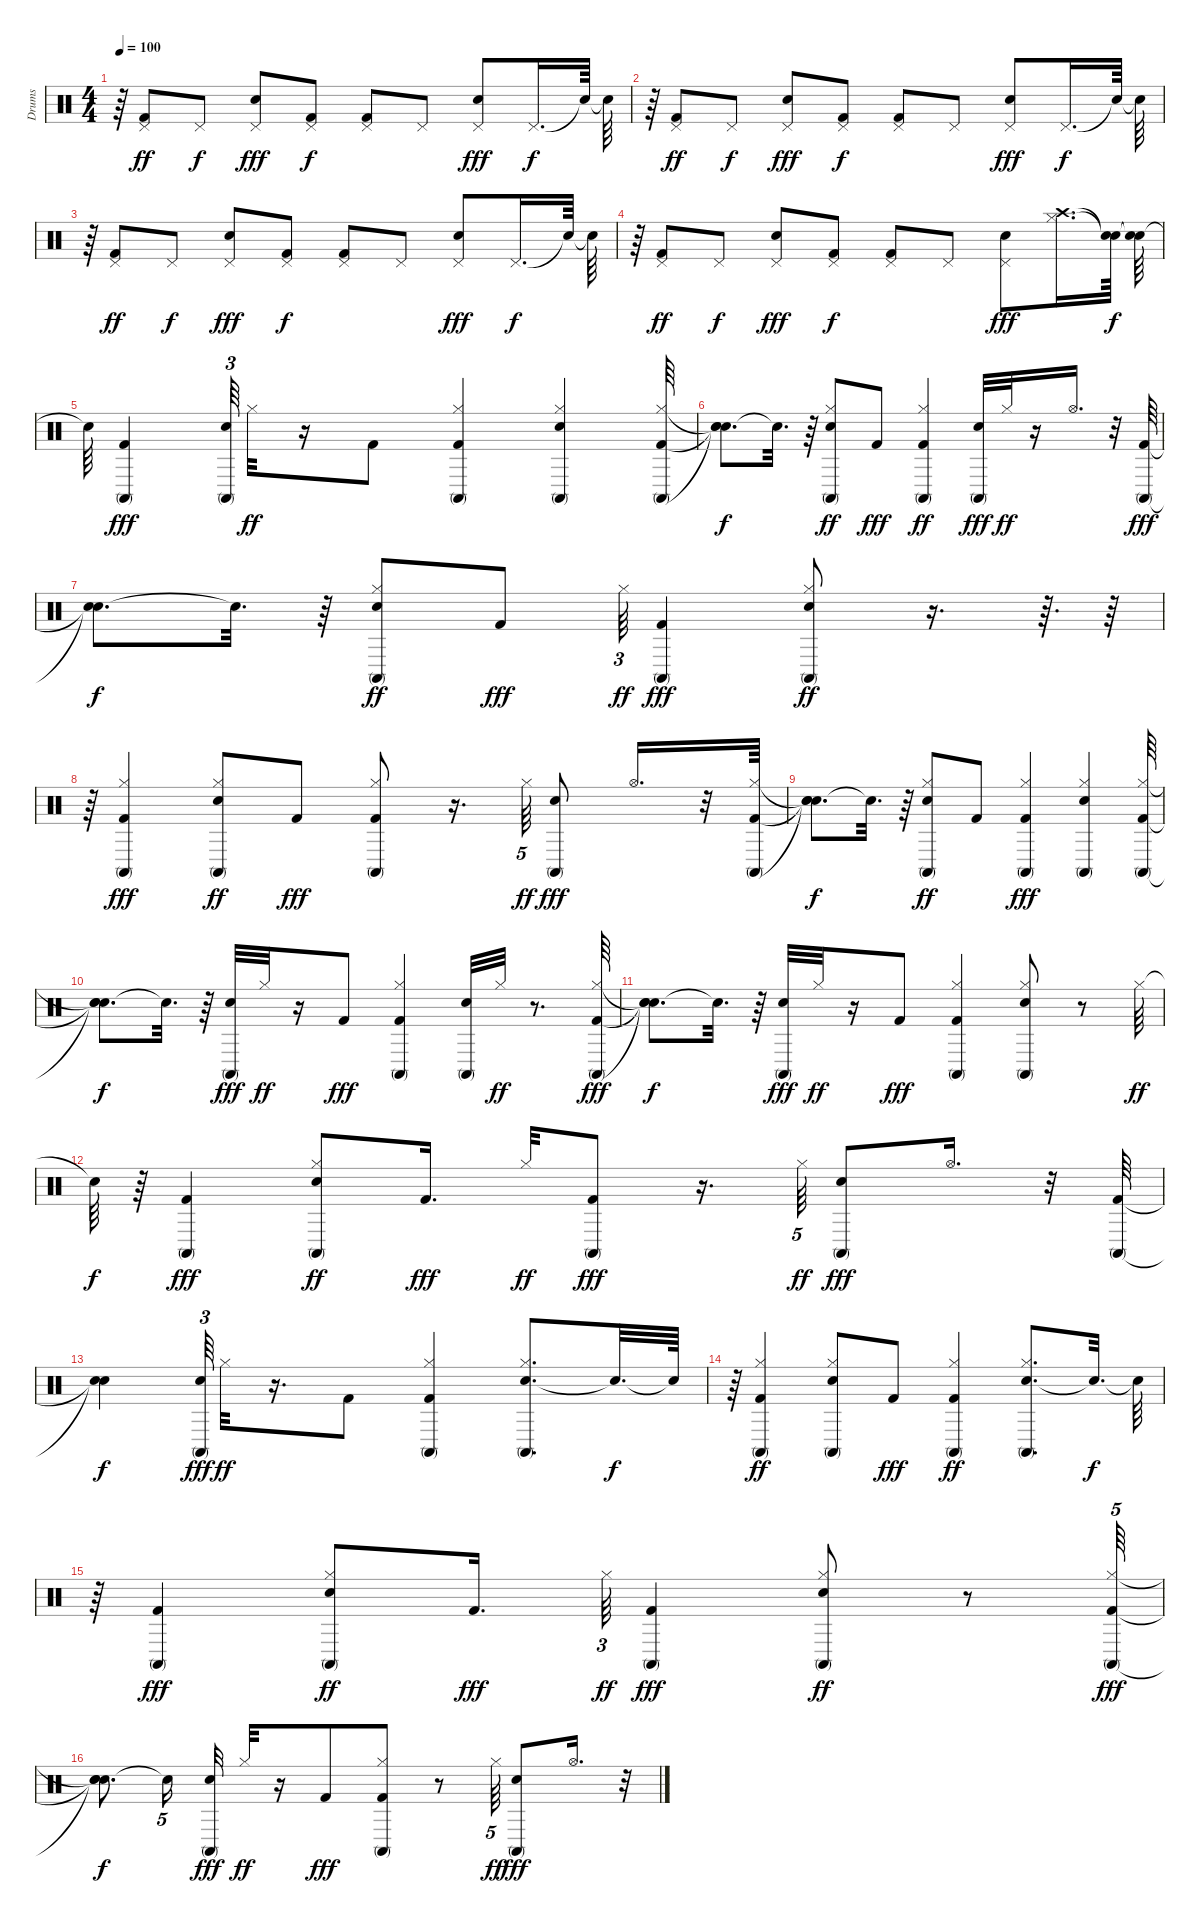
\track ("Drums" "Drums") {instrument percussion}
\staff {score}
\articulation defaults
\ts (4 4)
\tempo 100
\clef neutral
\ks c
r.64{dy f} ("Pedal Hi-Hat (hit)" "Kick (hit) 2").8{dy ff} "Pedal Hi-Hat (hit)".8{dy f} ("Snare (hit) 2" "Pedal Hi-Hat (hit)").8{dy fff} ("Kick (hit) 2" "Pedal Hi-Hat (hit)").8{dy f} ("Kick (hit) 2" "Pedal Hi-Hat (hit)").8 "Pedal Hi-Hat (hit)".8 ("Snare (hit) 2" "Pedal Hi-Hat (hit)").8{dy fff} "Pedal Hi-Hat (hit)".16{d dy f} "Snare (hit)"{t}.64 "Snare (hit)"{t}.64 |
r.64 ("Pedal Hi-Hat (hit)" "Kick (hit) 2").8{dy ff} "Pedal Hi-Hat (hit)".8{dy f} ("Snare (hit) 2" "Pedal Hi-Hat (hit)").8{dy fff} ("Kick (hit) 2" "Pedal Hi-Hat (hit)").8{dy f} ("Kick (hit) 2" "Pedal Hi-Hat (hit)").8 "Pedal Hi-Hat (hit)".8 ("Snare (hit) 2" "Pedal Hi-Hat (hit)").8{dy fff} "Pedal Hi-Hat (hit)".16{d dy f} "Snare (hit)"{t}.64 "Snare (hit)"{t}.64 |
r.64 ("Pedal Hi-Hat (hit)" "Kick (hit) 2").8{dy ff} "Pedal Hi-Hat (hit)".8{dy f} ("Snare (hit) 2" "Pedal Hi-Hat (hit)").8{dy fff} ("Kick (hit) 2" "Pedal Hi-Hat (hit)").8{dy f} ("Kick (hit) 2" "Pedal Hi-Hat (hit)").8 "Pedal Hi-Hat (hit)".8 ("Snare (hit) 2" "Pedal Hi-Hat (hit)").8{dy fff} "Pedal Hi-Hat (hit)".16{d dy f} "Snare (hit)"{t}.64 "Snare (hit)"{t}.64 |
r.64 ("Pedal Hi-Hat (hit)" "Kick (hit) 2").8{dy ff} "Pedal Hi-Hat (hit)".8{dy f} ("Pedal Hi-Hat (hit)" "Snare (hit) 2").8{dy fff} ("Kick (hit) 2" "Pedal Hi-Hat (hit)").8{dy f} ("Pedal Hi-Hat (hit)" "Kick (hit) 2").8 "Pedal Hi-Hat (hit)".8 ("Pedal Hi-Hat (hit)" "Snare (hit) 2").8{dy fff} ("Crash high (hit)" "Hi-Hat (closed)").16{d} ("Snare (hit)"{t} "Snare (hit)"{t}).64{dy f} ("Snare (hit)"{t} "Snare (hit)"{t}).64 |
"Snare (hit)"{t}.64 ("Conga high (mute)" "Kick (hit) 2").4{dy fff} ("Snare (hit) 2" "Conga high (mute)").64{tu (3 2)} "Hi-Hat (closed)".32{dy ff} r.16 "Kick (hit) 2".8 ("Kick (hit) 2" "Conga high (mute)" "Hi-Hat (closed)").4 ("Snare (hit) 2" "Conga high (mute)" "Hi-Hat (closed)").4 ("Kick (hit) 2" "Conga high (mute)" "Hi-Hat (closed)").64 |
("Snare (hit)"{t} "Snare (hit)"{t} "Snare (hit)"{t}).8{d dy f} "Snare (hit)"{t}.32{d} r.64 ("Snare (hit) 2" "Conga high (mute)" "Hi-Hat (closed)").8{dy ff} "Kick (hit) 2".8{dy fff} ("Conga high (mute)" "Kick (hit) 2" "Hi-Hat (closed)").4{dy ff} ("Snare (hit) 2" "Conga high (mute)").32{dy fff} "Hi-Hat (closed)".32{dy ff} r.16 "Hi-Hat (open)".16{d} r.32 ("Conga high (mute)" "Kick (hit) 2").64{dy fff} |
("Snare (hit)"{t} "Snare (hit)"{t}).8{d dy f} "Snare (hit)"{t}.32{d} r.64 ("Snare (hit) 2" "Conga high (mute)" "Hi-Hat (closed)").8{dy ff} "Kick (hit) 2".8{dy fff} "Hi-Hat (closed)".64{tu (3 2) dy ff} ("Conga high (mute)" "Kick (hit) 2").4{dy fff} ("Snare (hit) 2" "Conga high (mute)" "Hi-Hat (closed)").8{dy ff} r.16{d} r.64{d} r.64 |
r.64 ("Hi-Hat (closed)" "Kick (hit) 2" "Conga high (mute)").4{dy fff} ("Snare (hit) 2" "Conga high (mute)" "Hi-Hat (closed)").8{dy ff} "Kick (hit) 2".8{dy fff} ("Hi-Hat (closed)" "Kick (hit) 2" "Conga high (mute)").8 r.16{d} "Hi-Hat (closed)".64{tu (5 4) dy ff} ("Conga high (mute)" "Snare (hit) 2").8{dy fff} "Hi-Hat (open)".16{d} r.32 ("Hi-Hat (closed)" "Kick (hit) 2" "Conga high (mute)").64 |
("Snare (hit)"{t} "Snare (hit)"{t} "Snare (hit)"{t}).8{d dy f} "Snare (hit)"{t}.32{d} r.64 ("Hi-Hat (closed)" "Snare (hit) 2" "Conga high (mute)").8{dy ff} "Kick (hit) 2".8 ("Hi-Hat (closed)" "Kick (hit) 2" "Conga high (mute)").4{dy fff} ("Hi-Hat (closed)" "Snare (hit) 2" "Conga high (mute)").4 ("Hi-Hat (closed)" "Kick (hit) 2" "Conga high (mute)").64 |
("Snare (hit)"{t} "Snare (hit)"{t} "Snare (hit)"{t}).8{d dy f} "Snare (hit)"{t}.32{d} r.64 ("Snare (hit) 2" "Conga high (mute)").32{dy fff} "Hi-Hat (closed)".32{dy ff} r.16 "Kick (hit) 2".8{dy fff} ("Hi-Hat (closed)" "Kick (hit) 2" "Conga high (mute)").4 ("Snare (hit) 2" "Conga high (mute)").32 "Hi-Hat (closed)".32{dy ff} r.8{d} ("Hi-Hat (closed)" "Kick (hit) 2" "Conga high (mute)").64{dy fff} |
("Snare (hit)"{t} "Snare (hit)"{t} "Snare (hit)"{t}).8{d dy f} "Snare (hit)"{t}.32{d} r.64 ("Snare (hit) 2" "Conga high (mute)").32{dy fff} "Hi-Hat (closed)".32{dy ff} r.16 "Kick (hit) 2".8{dy fff} ("Hi-Hat (closed)" "Kick (hit) 2" "Conga high (mute)").4 ("Hi-Hat (closed)" "Snare (hit) 2" "Conga high (mute)").8 r.8 "Hi-Hat (closed)".64{dy ff} |
"Snare (hit)"{t}.64{dy f} r.64 ("Kick (hit) 2" "Conga high (mute)").4{dy fff} ("Snare (hit) 2" "Conga high (mute)" "Hi-Hat (closed)").8{dy ff} "Kick (hit) 2".16{d dy fff} "Hi-Hat (closed)".32{dy ff} ("Kick (hit) 2" "Conga high (mute)").8{dy fff} r.16{d} "Hi-Hat (closed)".64{tu (5 4) dy ff} ("Conga high (mute)" "Snare (hit) 2").8{dy fff} "Hi-Hat (open)".16{d} r.32 ("Conga high (mute)" "Kick (hit) 2").64 |
("Snare (hit)"{t} "Snare (hit)"{t}).4{dy f} ("Snare (hit) 2" "Conga high (mute)").64{tu (3 2) dy fff} "Hi-Hat (closed)".32{dy ff} r.16{d} "Kick (hit) 2".8 ("Kick (hit) 2" "Conga high (mute)" "Hi-Hat (closed)").4 ("Snare (hit) 2" "Conga high (mute)" "Hi-Hat (closed)").8{d} "Snare (hit)"{t}.32{d dy f} "Snare (hit)"{t}.64 |
r.64 ("Kick (hit) 2" "Conga high (mute)" "Hi-Hat (closed)").4{dy ff} ("Snare (hit) 2" "Conga high (mute)" "Hi-Hat (closed)").8 "Kick (hit) 2".8{dy fff} ("Conga high (mute)" "Kick (hit) 2" "Hi-Hat (closed)").4{dy ff} ("Snare (hit) 2" "Conga high (mute)" "Hi-Hat (closed)").8{d} "Snare (hit)"{t}.32{d dy f} "Snare (hit)"{t}.64 |
r.64 ("Conga high (mute)" "Kick (hit) 2").4{dy fff} ("Snare (hit) 2" "Conga high (mute)" "Hi-Hat (closed)").8{dy ff} "Kick (hit) 2".16{d dy fff} "Hi-Hat (closed)".64{tu (3 2) dy ff} ("Conga high (mute)" "Kick (hit) 2").4{dy fff} ("Snare (hit) 2" "Conga high (mute)" "Hi-Hat (closed)").8{dy ff} r.8 ("Hi-Hat (closed)" "Kick (hit) 2" "Conga high (mute)").64{tu (5 4) dy fff} |
("Snare (hit)"{t} "Snare (hit)"{t} "Snare (hit)"{t}).8{d dy f} "Snare (hit)"{t}.16{tu (5 4)} ("Snare (hit) 2" "Conga high (mute)").32{dy fff} "Hi-Hat (closed)".32{dy ff} r.16 "Kick (hit) 2".8{dy fff} ("Hi-Hat (closed)" "Kick (hit) 2" "Conga high (mute)").8 r.8 "Hi-Hat (closed)".64{tu (5 4) dy ff} ("Conga high (mute)" "Snare (hit) 2").8{dy fff} "Hi-Hat (open)".16{d} r.32
